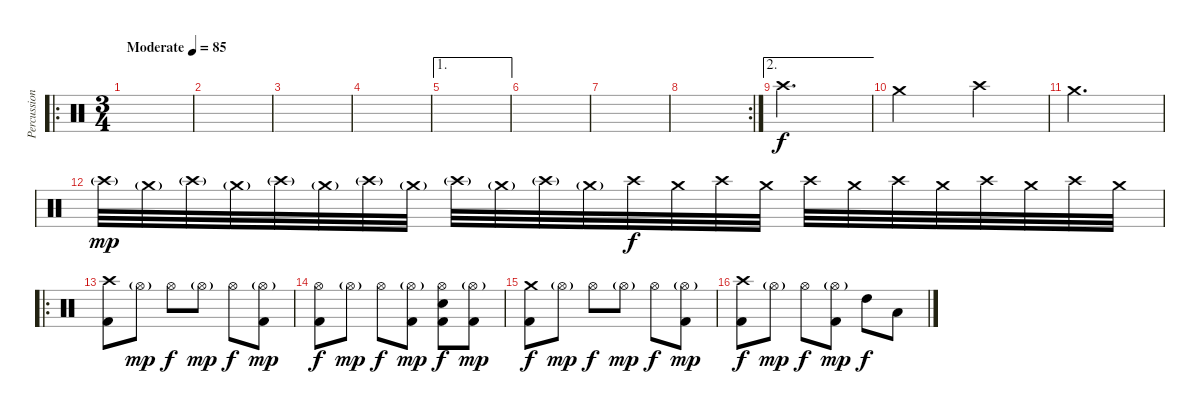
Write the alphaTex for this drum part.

\track ("Percussion" "Percussion") {instrument percussion}
\staff {score}
\articulation defaults
\ro
\ts (3 4)
\tempo (85 "Moderate")
\clef neutral
\ks c
|
|
|
|
\ae 1
|
|
|
\rc 2
|
\ae 2 "Crash high (hit)".2{d}
|
"Crash medium (hit)".2 "Crash high (hit)".4 |
"Crash medium (hit)".2{d} |
"Crash high (hit)"{g}.32{dy mp} "Crash medium (hit)"{g}.32 "Crash high (hit)"{g}.32 "Crash medium (hit)"{g}.32 "Crash high (hit)"{g}.32 "Crash medium (hit)"{g}.32 "Crash high (hit)"{g}.32 "Crash medium (hit)"{g}.32 "Crash high (hit)"{g}.32 "Crash medium (hit)"{g}.32 "Crash high (hit)"{g}.32 "Crash medium (hit)"{g}.32 "Crash high (hit)".32{dy f} "Crash medium (hit)".32 "Crash high (hit)".32 "Crash medium (hit)".32 "Crash high (hit)".32 "Crash medium (hit)".32 "Crash high (hit)".32 "Crash medium (hit)".32 "Crash high (hit)".32 "Crash medium (hit)".32 "Crash high (hit)".32 "Crash medium (hit)".32 |
\ro
("Crash high (hit)" "Kick (hit) 2").8 "Hi-Hat (open)"{g}.8{dy mp} "Hi-Hat (open)".8{dy f} "Hi-Hat (open)"{g}.8{dy mp} "Hi-Hat (open)".8{dy f} ("Hi-Hat (open)"{g} "Kick (hit) 2").8{dy mp} |
("Hi-Hat (open)" "Kick (hit) 2").8{dy f} "Hi-Hat (open)"{g}.8{dy mp} "Hi-Hat (open)".8{dy f} ("Hi-Hat (open)"{g} "Kick (hit) 2").8{dy mp} ("Hi-Hat (open)" "Snare (hit) 2" "Kick (hit) 2").8{dy f} ("Hi-Hat (open)"{g} "Kick (hit) 2").8{dy mp} |
("Crash medium (hit)" "Kick (hit) 2").8{dy f} "Hi-Hat (open)"{g}.8{dy mp} "Hi-Hat (open)".8{dy f} "Hi-Hat (open)"{g}.8{dy mp} "Hi-Hat (open)".8{dy f} ("Hi-Hat (open)"{g} "Kick (hit) 2").8{dy mp} |
("Crash high (hit)" "Kick (hit) 2").8{dy f} "Hi-Hat (open)"{g}.8{dy mp} "Hi-Hat (open)".8{dy f} ("Hi-Hat (open)"{g} "Kick (hit) 2").8{dy mp} "High Tom (hit)".8{dy f} "Low Floor Tom (hit)".8
